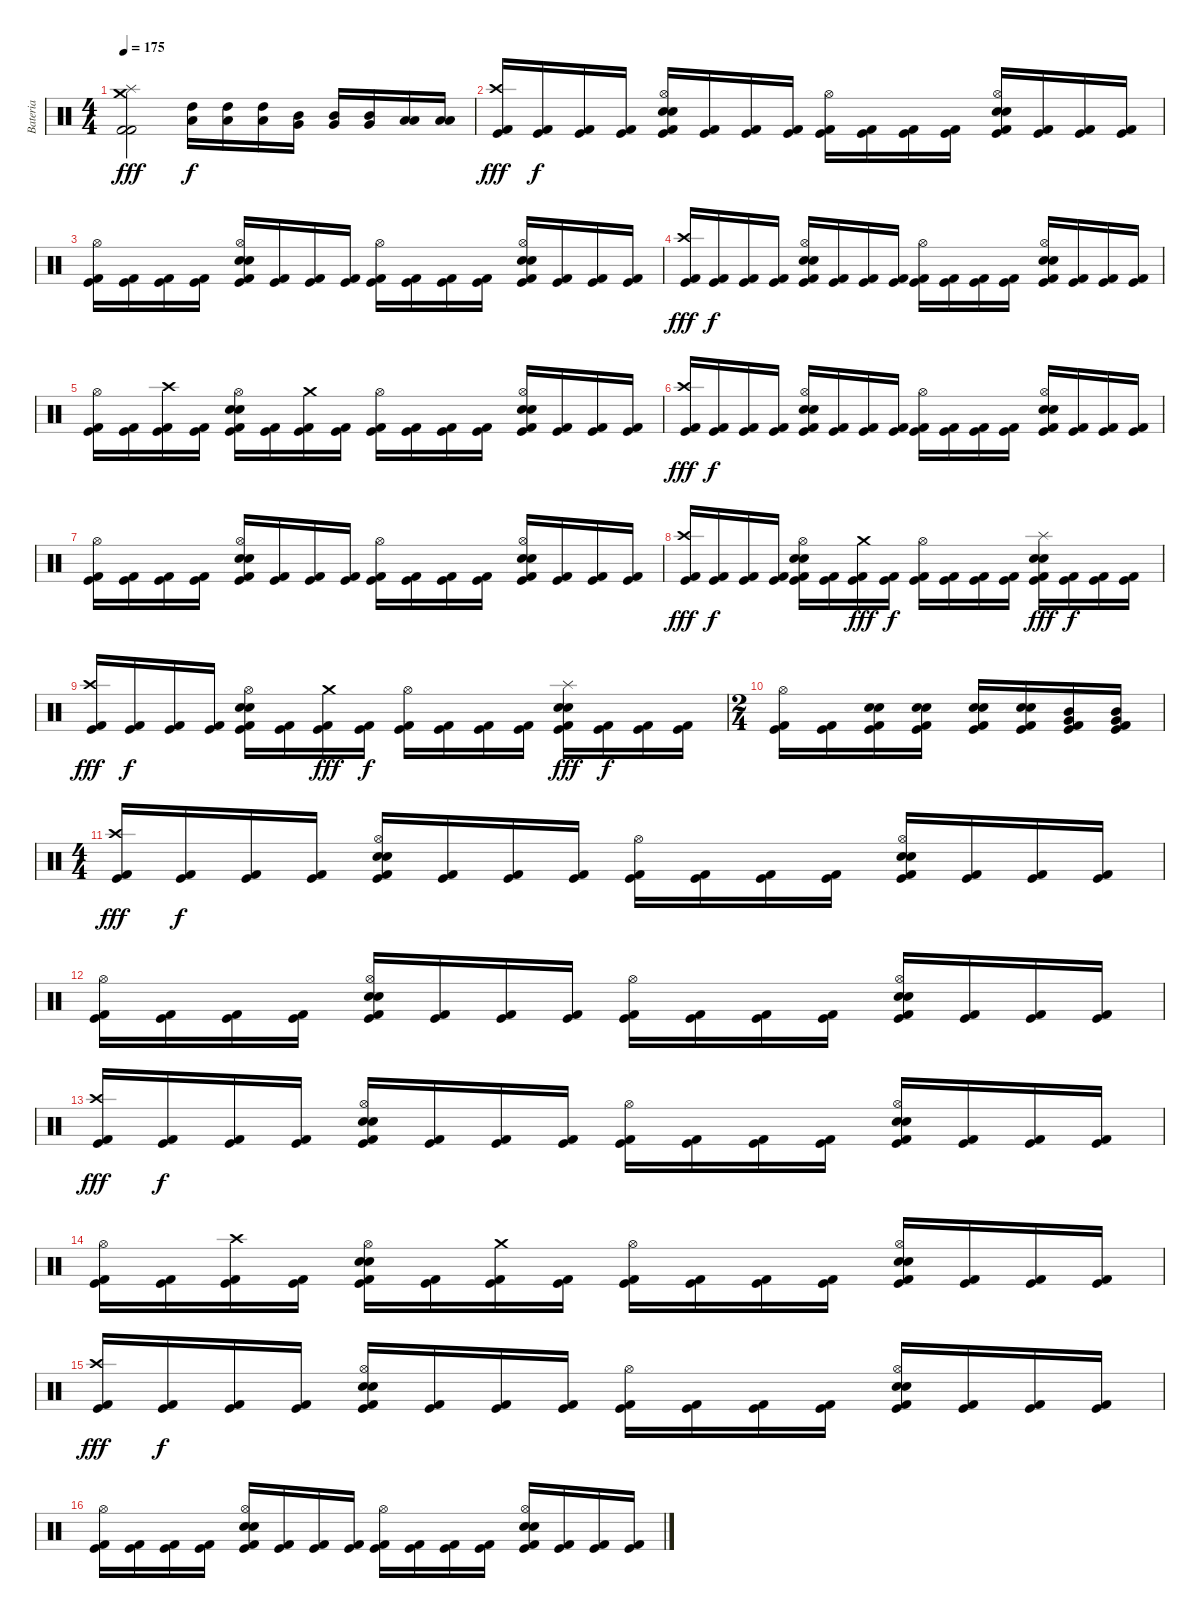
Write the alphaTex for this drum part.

\track ("Bateria" "Bateria") {instrument percussion}
\staff {score}
\articulation defaults
\ts (4 4)
\tempo 175
\clef neutral
\ks c
("Crash medium (hit)" "Splash (hit)" "Kick (hit) 2" "Kick (hit) 2").2{dy fff} ("High Tom (hit)" "Low Tom (hit)").16{dy f} ("High Tom (hit)" "Low Tom (hit)").16 ("High Tom (hit)" "Low Tom (hit)").16 ("Mid Tom (hit)" "Very Low Tom (hit)").16 ("Mid Tom (hit)" "Very Low Tom (hit)").16 ("Mid Tom (hit)" "Very Low Tom (hit)").16 ("Low Tom (hit)" "Low Floor Tom (hit)").16 ("Low Tom (hit)" "Low Floor Tom (hit)").16 |
("Crash high (hit)" "Kick (hit) 2" "Kick (hit)").16{dy fff} ("Kick (hit) 2" "Kick (hit)").16{dy f} ("Kick (hit) 2" "Kick (hit)").16 ("Kick (hit) 2" "Kick (hit)").16 ("Hi-Hat (open)" "Electric Snare (hit)" "Snare (hit) 2" "Kick (hit) 2" "Kick (hit)").16 ("Kick (hit) 2" "Kick (hit)").16 ("Kick (hit) 2" "Kick (hit)").16 ("Kick (hit) 2" "Kick (hit)").16 ("Hi-Hat (open)" "Kick (hit) 2" "Kick (hit)").16 ("Kick (hit) 2" "Kick (hit)").16 ("Kick (hit) 2" "Kick (hit)").16 ("Kick (hit) 2" "Kick (hit)").16 ("Hi-Hat (open)" "Electric Snare (hit)" "Snare (hit) 2" "Kick (hit) 2" "Kick (hit)").16 ("Kick (hit) 2" "Kick (hit)").16 ("Kick (hit) 2" "Kick (hit)").16 ("Kick (hit) 2" "Kick (hit)").16 |
("Hi-Hat (open)" "Kick (hit) 2" "Kick (hit)").16 ("Kick (hit) 2" "Kick (hit)").16 ("Kick (hit) 2" "Kick (hit)").16 ("Kick (hit) 2" "Kick (hit)").16 ("Hi-Hat (open)" "Electric Snare (hit)" "Snare (hit) 2" "Kick (hit) 2" "Kick (hit)").16 ("Kick (hit) 2" "Kick (hit)").16 ("Kick (hit) 2" "Kick (hit)").16 ("Kick (hit) 2" "Kick (hit)").16 ("Hi-Hat (open)" "Kick (hit) 2" "Kick (hit)").16 ("Kick (hit) 2" "Kick (hit)").16 ("Kick (hit) 2" "Kick (hit)").16 ("Kick (hit) 2" "Kick (hit)").16 ("Hi-Hat (open)" "Electric Snare (hit)" "Snare (hit) 2" "Kick (hit) 2" "Kick (hit)").16 ("Kick (hit) 2" "Kick (hit)").16 ("Kick (hit) 2" "Kick (hit)").16 ("Kick (hit) 2" "Kick (hit)").16 |
("Crash high (hit)" "Kick (hit) 2" "Kick (hit)").16{dy fff} ("Kick (hit) 2" "Kick (hit)").16{dy f} ("Kick (hit) 2" "Kick (hit)").16 ("Kick (hit) 2" "Kick (hit)").16 ("Hi-Hat (open)" "Electric Snare (hit)" "Snare (hit) 2" "Kick (hit) 2" "Kick (hit)").16 ("Kick (hit) 2" "Kick (hit)").16 ("Kick (hit) 2" "Kick (hit)").16 ("Kick (hit) 2" "Kick (hit)").16 ("Hi-Hat (open)" "Kick (hit) 2" "Kick (hit)").16 ("Kick (hit) 2" "Kick (hit)").16 ("Kick (hit) 2" "Kick (hit)").16 ("Kick (hit) 2" "Kick (hit)").16 ("Hi-Hat (open)" "Electric Snare (hit)" "Snare (hit) 2" "Kick (hit) 2" "Kick (hit)").16 ("Kick (hit) 2" "Kick (hit)").16 ("Kick (hit) 2" "Kick (hit)").16 ("Kick (hit) 2" "Kick (hit)").16 |
("Hi-Hat (open)" "Kick (hit) 2" "Kick (hit)").16 ("Kick (hit) 2" "Kick (hit)").16 ("Crash high (hit)" "Kick (hit) 2" "Kick (hit)").16 ("Kick (hit) 2" "Kick (hit)").16 ("Hi-Hat (open)" "Electric Snare (hit)" "Snare (hit) 2" "Kick (hit) 2" "Kick (hit)").16 ("Kick (hit) 2" "Kick (hit)").16 ("Crash medium (hit)" "Kick (hit) 2" "Kick (hit)").16 ("Kick (hit) 2" "Kick (hit)").16 ("Hi-Hat (open)" "Kick (hit) 2" "Kick (hit)").16 ("Kick (hit) 2" "Kick (hit)").16 ("Kick (hit) 2" "Kick (hit)").16 ("Kick (hit) 2" "Kick (hit)").16 ("Hi-Hat (open)" "Electric Snare (hit)" "Snare (hit) 2" "Kick (hit) 2" "Kick (hit)").16 ("Kick (hit) 2" "Kick (hit)").16 ("Kick (hit) 2" "Kick (hit)").16 ("Kick (hit) 2" "Kick (hit)").16 |
("Crash high (hit)" "Kick (hit) 2" "Kick (hit)").16{dy fff} ("Kick (hit) 2" "Kick (hit)").16{dy f} ("Kick (hit) 2" "Kick (hit)").16 ("Kick (hit) 2" "Kick (hit)").16 ("Hi-Hat (open)" "Electric Snare (hit)" "Snare (hit) 2" "Kick (hit) 2" "Kick (hit)").16 ("Kick (hit) 2" "Kick (hit)").16 ("Kick (hit) 2" "Kick (hit)").16 ("Kick (hit) 2" "Kick (hit)").16 ("Hi-Hat (open)" "Kick (hit) 2" "Kick (hit)").16 ("Kick (hit) 2" "Kick (hit)").16 ("Kick (hit) 2" "Kick (hit)").16 ("Kick (hit) 2" "Kick (hit)").16 ("Hi-Hat (open)" "Electric Snare (hit)" "Snare (hit) 2" "Kick (hit) 2" "Kick (hit)").16 ("Kick (hit) 2" "Kick (hit)").16 ("Kick (hit) 2" "Kick (hit)").16 ("Kick (hit) 2" "Kick (hit)").16 |
("Hi-Hat (open)" "Kick (hit) 2" "Kick (hit)").16 ("Kick (hit) 2" "Kick (hit)").16 ("Kick (hit) 2" "Kick (hit)").16 ("Kick (hit) 2" "Kick (hit)").16 ("Hi-Hat (open)" "Electric Snare (hit)" "Snare (hit) 2" "Kick (hit) 2" "Kick (hit)").16 ("Kick (hit) 2" "Kick (hit)").16 ("Kick (hit) 2" "Kick (hit)").16 ("Kick (hit) 2" "Kick (hit)").16 ("Hi-Hat (open)" "Kick (hit) 2" "Kick (hit)").16 ("Kick (hit) 2" "Kick (hit)").16 ("Kick (hit) 2" "Kick (hit)").16 ("Kick (hit) 2" "Kick (hit)").16 ("Hi-Hat (open)" "Electric Snare (hit)" "Snare (hit) 2" "Kick (hit) 2" "Kick (hit)").16 ("Kick (hit) 2" "Kick (hit)").16 ("Kick (hit) 2" "Kick (hit)").16 ("Kick (hit) 2" "Kick (hit)").16 |
("Crash high (hit)" "Kick (hit) 2" "Kick (hit)").16{dy fff} ("Kick (hit) 2" "Kick (hit)").16{dy f} ("Kick (hit) 2" "Kick (hit)").16 ("Kick (hit) 2" "Kick (hit)").16 ("Hi-Hat (open)" "Electric Snare (hit)" "Snare (hit) 2" "Kick (hit) 2" "Kick (hit)").16 ("Kick (hit) 2" "Kick (hit)").16 ("Crash medium (hit)" "Kick (hit) 2" "Kick (hit)").16{dy fff} ("Kick (hit) 2" "Kick (hit)").16{dy f} ("Hi-Hat (open)" "Kick (hit) 2" "Kick (hit)").16 ("Kick (hit) 2" "Kick (hit)").16 ("Kick (hit) 2" "Kick (hit)").16 ("Kick (hit) 2" "Kick (hit)").16 ("Splash (hit)" "Electric Snare (hit)" "Snare (hit) 2" "Kick (hit) 2" "Kick (hit)").16{dy fff} ("Kick (hit) 2" "Kick (hit)").16{dy f} ("Kick (hit) 2" "Kick (hit)").16 ("Kick (hit) 2" "Kick (hit)").16 |
("Crash high (hit)" "Kick (hit) 2" "Kick (hit)").16{dy fff} ("Kick (hit) 2" "Kick (hit)").16{dy f} ("Kick (hit) 2" "Kick (hit)").16 ("Kick (hit) 2" "Kick (hit)").16 ("Hi-Hat (open)" "Electric Snare (hit)" "Snare (hit) 2" "Kick (hit) 2" "Kick (hit)").16 ("Kick (hit) 2" "Kick (hit)").16 ("Crash medium (hit)" "Kick (hit) 2" "Kick (hit)").16{dy fff} ("Kick (hit) 2" "Kick (hit)").16{dy f} ("Hi-Hat (open)" "Kick (hit) 2" "Kick (hit)").16 ("Kick (hit) 2" "Kick (hit)").16 ("Kick (hit) 2" "Kick (hit)").16 ("Kick (hit) 2" "Kick (hit)").16 ("Splash (hit)" "Electric Snare (hit)" "Snare (hit) 2" "Kick (hit) 2" "Kick (hit)").16{dy fff} ("Kick (hit) 2" "Kick (hit)").16{dy f} ("Kick (hit) 2" "Kick (hit)").16 ("Kick (hit) 2" "Kick (hit)").16 |
\ts (2 4)
("Hi-Hat (open)" "Kick (hit) 2" "Kick (hit)").16 ("Kick (hit) 2" "Kick (hit)").16 ("Electric Snare (hit)" "Snare (hit) 2" "Kick (hit) 2" "Kick (hit)").16 ("Electric Snare (hit)" "Snare (hit) 2" "Kick (hit) 2" "Kick (hit)").16 ("Electric Snare (hit)" "Snare (hit) 2" "Kick (hit) 2" "Kick (hit)").16 ("Electric Snare (hit)" "Snare (hit) 2" "Kick (hit) 2" "Kick (hit)").16 ("Mid Tom (hit)" "Very Low Tom (hit)" "Kick (hit) 2" "Kick (hit)").16 ("Mid Tom (hit)" "Very Low Tom (hit)" "Kick (hit) 2" "Kick (hit)").16 |
\ts (4 4)
("Crash high (hit)" "Kick (hit) 2" "Kick (hit)").16{dy fff} ("Kick (hit) 2" "Kick (hit)").16{dy f} ("Kick (hit) 2" "Kick (hit)").16 ("Kick (hit) 2" "Kick (hit)").16 ("Hi-Hat (open)" "Electric Snare (hit)" "Snare (hit) 2" "Kick (hit) 2" "Kick (hit)").16 ("Kick (hit) 2" "Kick (hit)").16 ("Kick (hit) 2" "Kick (hit)").16 ("Kick (hit) 2" "Kick (hit)").16 ("Hi-Hat (open)" "Kick (hit) 2" "Kick (hit)").16 ("Kick (hit) 2" "Kick (hit)").16 ("Kick (hit) 2" "Kick (hit)").16 ("Kick (hit) 2" "Kick (hit)").16 ("Hi-Hat (open)" "Electric Snare (hit)" "Snare (hit) 2" "Kick (hit) 2" "Kick (hit)").16 ("Kick (hit) 2" "Kick (hit)").16 ("Kick (hit) 2" "Kick (hit)").16 ("Kick (hit) 2" "Kick (hit)").16 |
("Hi-Hat (open)" "Kick (hit) 2" "Kick (hit)").16 ("Kick (hit) 2" "Kick (hit)").16 ("Kick (hit) 2" "Kick (hit)").16 ("Kick (hit) 2" "Kick (hit)").16 ("Hi-Hat (open)" "Electric Snare (hit)" "Snare (hit) 2" "Kick (hit) 2" "Kick (hit)").16 ("Kick (hit) 2" "Kick (hit)").16 ("Kick (hit) 2" "Kick (hit)").16 ("Kick (hit) 2" "Kick (hit)").16 ("Hi-Hat (open)" "Kick (hit) 2" "Kick (hit)").16 ("Kick (hit) 2" "Kick (hit)").16 ("Kick (hit) 2" "Kick (hit)").16 ("Kick (hit) 2" "Kick (hit)").16 ("Hi-Hat (open)" "Electric Snare (hit)" "Snare (hit) 2" "Kick (hit) 2" "Kick (hit)").16 ("Kick (hit) 2" "Kick (hit)").16 ("Kick (hit) 2" "Kick (hit)").16 ("Kick (hit) 2" "Kick (hit)").16 |
("Crash high (hit)" "Kick (hit) 2" "Kick (hit)").16{dy fff} ("Kick (hit) 2" "Kick (hit)").16{dy f} ("Kick (hit) 2" "Kick (hit)").16 ("Kick (hit) 2" "Kick (hit)").16 ("Hi-Hat (open)" "Electric Snare (hit)" "Snare (hit) 2" "Kick (hit) 2" "Kick (hit)").16 ("Kick (hit) 2" "Kick (hit)").16 ("Kick (hit) 2" "Kick (hit)").16 ("Kick (hit) 2" "Kick (hit)").16 ("Hi-Hat (open)" "Kick (hit) 2" "Kick (hit)").16 ("Kick (hit) 2" "Kick (hit)").16 ("Kick (hit) 2" "Kick (hit)").16 ("Kick (hit) 2" "Kick (hit)").16 ("Hi-Hat (open)" "Electric Snare (hit)" "Snare (hit) 2" "Kick (hit) 2" "Kick (hit)").16 ("Kick (hit) 2" "Kick (hit)").16 ("Kick (hit) 2" "Kick (hit)").16 ("Kick (hit) 2" "Kick (hit)").16 |
("Hi-Hat (open)" "Kick (hit) 2" "Kick (hit)").16 ("Kick (hit) 2" "Kick (hit)").16 ("Crash high (hit)" "Kick (hit) 2" "Kick (hit)").16 ("Kick (hit) 2" "Kick (hit)").16 ("Hi-Hat (open)" "Electric Snare (hit)" "Snare (hit) 2" "Kick (hit) 2" "Kick (hit)").16 ("Kick (hit) 2" "Kick (hit)").16 ("Crash medium (hit)" "Kick (hit) 2" "Kick (hit)").16 ("Kick (hit) 2" "Kick (hit)").16 ("Hi-Hat (open)" "Kick (hit) 2" "Kick (hit)").16 ("Kick (hit) 2" "Kick (hit)").16 ("Kick (hit) 2" "Kick (hit)").16 ("Kick (hit) 2" "Kick (hit)").16 ("Hi-Hat (open)" "Electric Snare (hit)" "Snare (hit) 2" "Kick (hit) 2" "Kick (hit)").16 ("Kick (hit) 2" "Kick (hit)").16 ("Kick (hit) 2" "Kick (hit)").16 ("Kick (hit) 2" "Kick (hit)").16 |
("Crash high (hit)" "Kick (hit) 2" "Kick (hit)").16{dy fff} ("Kick (hit) 2" "Kick (hit)").16{dy f} ("Kick (hit) 2" "Kick (hit)").16 ("Kick (hit) 2" "Kick (hit)").16 ("Hi-Hat (open)" "Electric Snare (hit)" "Snare (hit) 2" "Kick (hit) 2" "Kick (hit)").16 ("Kick (hit) 2" "Kick (hit)").16 ("Kick (hit) 2" "Kick (hit)").16 ("Kick (hit) 2" "Kick (hit)").16 ("Hi-Hat (open)" "Kick (hit) 2" "Kick (hit)").16 ("Kick (hit) 2" "Kick (hit)").16 ("Kick (hit) 2" "Kick (hit)").16 ("Kick (hit) 2" "Kick (hit)").16 ("Hi-Hat (open)" "Electric Snare (hit)" "Snare (hit) 2" "Kick (hit) 2" "Kick (hit)").16 ("Kick (hit) 2" "Kick (hit)").16 ("Kick (hit) 2" "Kick (hit)").16 ("Kick (hit) 2" "Kick (hit)").16 |
("Hi-Hat (open)" "Kick (hit) 2" "Kick (hit)").16 ("Kick (hit) 2" "Kick (hit)").16 ("Kick (hit) 2" "Kick (hit)").16 ("Kick (hit) 2" "Kick (hit)").16 ("Hi-Hat (open)" "Electric Snare (hit)" "Snare (hit) 2" "Kick (hit) 2" "Kick (hit)").16 ("Kick (hit) 2" "Kick (hit)").16 ("Kick (hit) 2" "Kick (hit)").16 ("Kick (hit) 2" "Kick (hit)").16 ("Hi-Hat (open)" "Kick (hit) 2" "Kick (hit)").16 ("Kick (hit) 2" "Kick (hit)").16 ("Kick (hit) 2" "Kick (hit)").16 ("Kick (hit) 2" "Kick (hit)").16 ("Hi-Hat (open)" "Electric Snare (hit)" "Snare (hit) 2" "Kick (hit) 2" "Kick (hit)").16 ("Kick (hit) 2" "Kick (hit)").16 ("Kick (hit) 2" "Kick (hit)").16 ("Kick (hit) 2" "Kick (hit)").16
